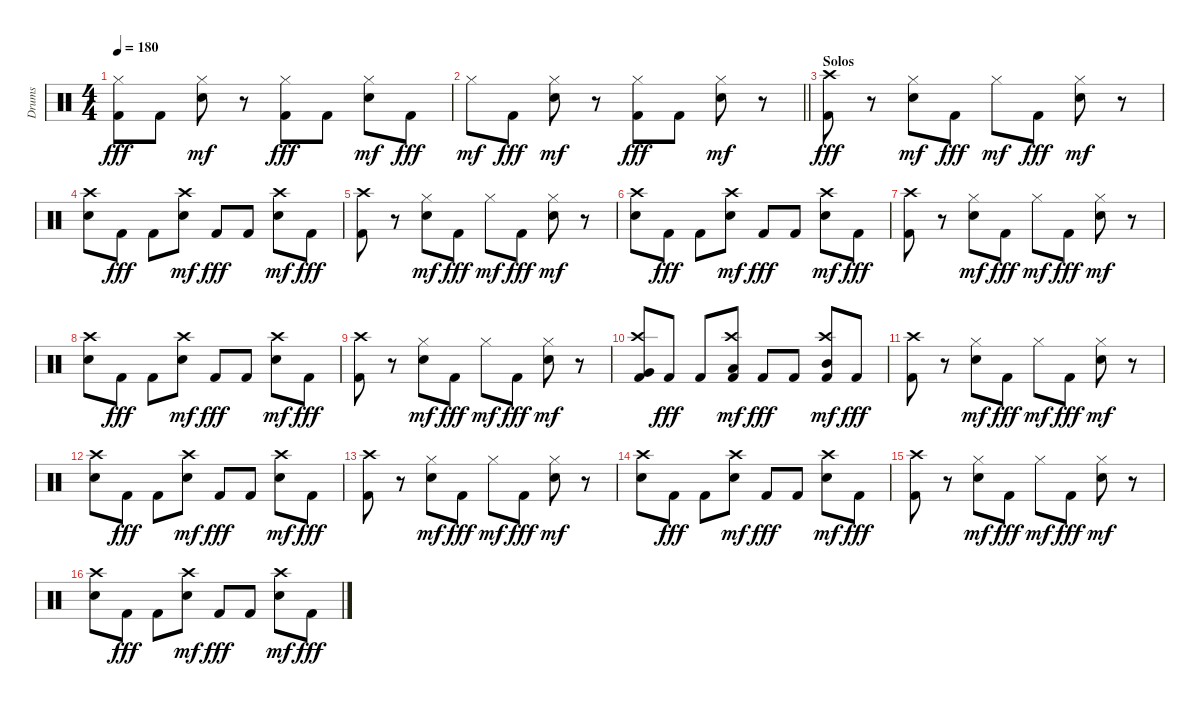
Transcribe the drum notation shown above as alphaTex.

\track ("Drums" "Drums") {instrument percussion}
\staff {score}
\articulation defaults
\ts (4 4)
\tempo 180
\clef neutral
\ks c
("Hi-Hat (closed)" "Kick (hit) 2").8{dy fff} "Kick (hit) 2".8 ("Hi-Hat (closed)" "Electric Snare (hit)").8{dy mf} r.8 ("Hi-Hat (closed)" "Kick (hit) 2").8{dy fff} "Kick (hit) 2".8 ("Hi-Hat (closed)" "Electric Snare (hit)").8{dy mf} "Kick (hit) 2".8{dy fff} |
\barLineRight lightlight "Hi-Hat (closed)".8{dy mf} "Kick (hit) 2".8{dy fff}
("Hi-Hat (closed)" "Electric Snare (hit)").8{dy mf} r.8 ("Hi-Hat (closed)" "Kick (hit) 2").8{dy fff} "Kick (hit) 2".8 ("Hi-Hat (closed)" "Electric Snare (hit)").8{dy mf} r.8 |
\section ("" "Solos")
("Crash high (hit)" "Kick (hit) 2").8{dy fff} r.8 ("Hi-Hat (closed)" "Electric Snare (hit)").8{dy mf} "Kick (hit) 2".8{dy fff} "Hi-Hat (closed)".8{dy mf} "Kick (hit) 2".8{dy fff} ("Hi-Hat (closed)" "Electric Snare (hit)").8{dy mf} r.8 |
("Crash high (hit)" "Electric Snare (hit)").8 "Kick (hit) 2".8{dy fff} "Kick (hit) 2".8 ("Crash high (hit)" "Electric Snare (hit)").8{dy mf} "Kick (hit) 2".8{dy fff} "Kick (hit) 2".8 ("Crash high (hit)" "Electric Snare (hit)").8{dy mf} "Kick (hit) 2".8{dy fff} |
("Crash high (hit)" "Kick (hit) 2").8 r.8 ("Hi-Hat (closed)" "Electric Snare (hit)").8{dy mf} "Kick (hit) 2".8{dy fff} "Hi-Hat (closed)".8{dy mf} "Kick (hit) 2".8{dy fff} ("Hi-Hat (closed)" "Electric Snare (hit)").8{dy mf} r.8 |
("Crash high (hit)" "Electric Snare (hit)").8 "Kick (hit) 2".8{dy fff} "Kick (hit) 2".8 ("Crash high (hit)" "Electric Snare (hit)").8{dy mf} "Kick (hit) 2".8{dy fff} "Kick (hit) 2".8 ("Crash high (hit)" "Electric Snare (hit)").8{dy mf} "Kick (hit) 2".8{dy fff} |
("Crash high (hit)" "Kick (hit) 2").8 r.8 ("Hi-Hat (closed)" "Electric Snare (hit)").8{dy mf} "Kick (hit) 2".8{dy fff} "Hi-Hat (closed)".8{dy mf} "Kick (hit) 2".8{dy fff} ("Hi-Hat (closed)" "Electric Snare (hit)").8{dy mf} r.8 |
("Crash high (hit)" "Electric Snare (hit)").8 "Kick (hit) 2".8{dy fff} "Kick (hit) 2".8 ("Crash high (hit)" "Electric Snare (hit)").8{dy mf} "Kick (hit) 2".8{dy fff} "Kick (hit) 2".8 ("Crash high (hit)" "Electric Snare (hit)").8{dy mf} "Kick (hit) 2".8{dy fff} |
("Crash high (hit)" "Kick (hit) 2").8 r.8 ("Hi-Hat (closed)" "Electric Snare (hit)").8{dy mf} "Kick (hit) 2".8{dy fff} "Hi-Hat (closed)".8{dy mf} "Kick (hit) 2".8{dy fff} ("Hi-Hat (closed)" "Electric Snare (hit)").8{dy mf} r.8 |
("Kick (hit) 2" "Very Low Tom (hit)" "Crash high (hit)").8 "Kick (hit) 2".8{dy fff} "Kick (hit) 2".8 ("Kick (hit) 2" "Low Tom (hit)" "Crash high (hit)").8{dy mf} "Kick (hit) 2".8{dy fff} "Kick (hit) 2".8 ("Kick (hit) 2" "Mid Tom (hit)" "Crash high (hit)").8{dy mf} "Kick (hit) 2".8{dy fff} |
("Crash high (hit)" "Kick (hit) 2").8 r.8 ("Hi-Hat (closed)" "Electric Snare (hit)").8{dy mf} "Kick (hit) 2".8{dy fff} "Hi-Hat (closed)".8{dy mf} "Kick (hit) 2".8{dy fff} ("Hi-Hat (closed)" "Electric Snare (hit)").8{dy mf} r.8 |
("Crash high (hit)" "Electric Snare (hit)").8 "Kick (hit) 2".8{dy fff} "Kick (hit) 2".8 ("Crash high (hit)" "Electric Snare (hit)").8{dy mf} "Kick (hit) 2".8{dy fff} "Kick (hit) 2".8 ("Crash high (hit)" "Electric Snare (hit)").8{dy mf} "Kick (hit) 2".8{dy fff} |
("Crash high (hit)" "Kick (hit) 2").8 r.8 ("Hi-Hat (closed)" "Electric Snare (hit)").8{dy mf} "Kick (hit) 2".8{dy fff} "Hi-Hat (closed)".8{dy mf} "Kick (hit) 2".8{dy fff} ("Hi-Hat (closed)" "Electric Snare (hit)").8{dy mf} r.8 |
("Crash high (hit)" "Electric Snare (hit)").8 "Kick (hit) 2".8{dy fff} "Kick (hit) 2".8 ("Crash high (hit)" "Electric Snare (hit)").8{dy mf} "Kick (hit) 2".8{dy fff} "Kick (hit) 2".8 ("Crash high (hit)" "Electric Snare (hit)").8{dy mf} "Kick (hit) 2".8{dy fff} |
("Crash high (hit)" "Kick (hit) 2").8 r.8 ("Hi-Hat (closed)" "Electric Snare (hit)").8{dy mf} "Kick (hit) 2".8{dy fff} "Hi-Hat (closed)".8{dy mf} "Kick (hit) 2".8{dy fff} ("Hi-Hat (closed)" "Electric Snare (hit)").8{dy mf} r.8 |
("Crash high (hit)" "Electric Snare (hit)").8 "Kick (hit) 2".8{dy fff} "Kick (hit) 2".8 ("Crash high (hit)" "Electric Snare (hit)").8{dy mf} "Kick (hit) 2".8{dy fff} "Kick (hit) 2".8 ("Crash high (hit)" "Electric Snare (hit)").8{dy mf} "Kick (hit) 2".8{dy fff}
